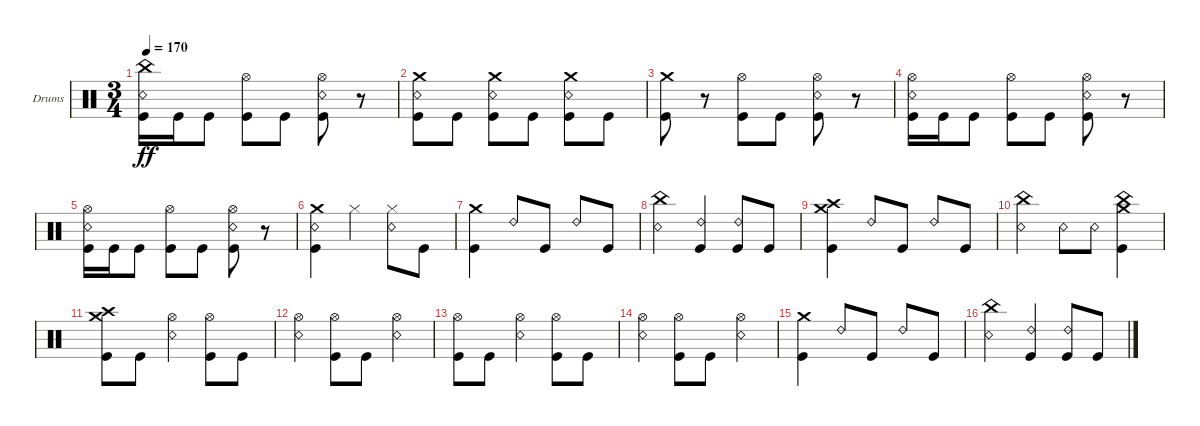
\bracketExtendMode groupsimilarinstruments
\firstSystemTrackNameOrientation horizontal
\otherSystemsTrackNameOrientation horizontal
\track ("Kaleb - Drums" "Drums") {instrument percussion}
\staff {score}
\articulation defaults
\ts (3 4)
\tempo 170
\clef neutral
\ks c
("Kick (hit)" "Snare (rim shot)" "China (hit)").16{dy ff} "Kick (hit)".16 "Kick (hit)".8 ("Kick (hit)" "Hi-Hat (open)").8 "Kick (hit)".8 ("Kick (hit)" "Hi-Hat (open)" "Snare (rim shot)").8 r.8 |
("Kick (hit)" "Crash medium (hit)" "Snare (rim shot)").8 "Kick (hit)".8 ("Kick (hit)" "Crash medium (hit)" "Snare (rim shot)").8 "Kick (hit)".8 ("Kick (hit)" "Crash medium (hit)" "Snare (rim shot)").8 "Kick (hit)".8 |
("Kick (hit)" "Crash medium (hit)").8 r.8 ("Kick (hit)" "Hi-Hat (open)").8 "Kick (hit)".8 ("Kick (hit)" "Hi-Hat (open)" "Snare (rim shot)").8 r.8 |
("Kick (hit)" "Hi-Hat (open)" "Snare (rim shot)").16 "Kick (hit)".16 "Kick (hit)".8 ("Kick (hit)" "Hi-Hat (open)").8 "Kick (hit)".8 ("Kick (hit)" "Hi-Hat (open)" "Snare (rim shot)").8 r.8 |
("Kick (hit)" "Hi-Hat (open)" "Snare (rim shot)").16 "Kick (hit)".16 "Kick (hit)".8 ("Kick (hit)" "Hi-Hat (open)").8 "Kick (hit)".8 ("Kick (hit)" "Hi-Hat (open)" "Snare (rim shot)").8 r.8 |
("Kick (hit)" "Crash medium (hit)" "Snare (rim shot)").4 "Hi-Hat (closed)".4 ("Hi-Hat (closed)" "Snare (rim shot)").8 "Kick (hit)".8 |
("Kick (hit)" "Crash medium (hit)").4 "Ride (bell) 2".8 "Kick (hit)".8 "Ride (bell) 2".8 "Kick (hit)".8 |
("Snare (rim shot)" "China (hit)").4 ("Ride (bell) 2" "Kick (hit)").4 ("Ride (bell) 2" "Kick (hit)").8 "Kick (hit)".8 |
("Kick (hit)" "Crash medium (hit)" "Crash high (hit)").4 "Ride (bell) 2".8 "Kick (hit)".8 "Ride (bell) 2".8 "Kick (hit)".8 |
("Snare (rim shot)" "China (hit)").4 "Snare (rim shot)".8 "Snare (rim shot)".8 ("Kick (hit)" "Crash medium (hit)" "China (hit)").4 |
("Kick (hit)" "Crash medium (hit)" "Crash high (hit)").8 "Kick (hit)".8 ("Hi-Hat (open)" "Snare (rim shot)").4 ("Kick (hit)" "Hi-Hat (open)").8 "Kick (hit)".8 |
("Hi-Hat (open)" "Snare (rim shot)").4 ("Kick (hit)" "Hi-Hat (open)").8 "Kick (hit)".8 ("Hi-Hat (open)" "Snare (rim shot)").4 |
("Kick (hit)" "Hi-Hat (open)").8 "Kick (hit)".8 ("Hi-Hat (open)" "Snare (rim shot)").4 ("Kick (hit)" "Hi-Hat (open)").8 "Kick (hit)".8 |
("Hi-Hat (open)" "Snare (rim shot)").4 ("Kick (hit)" "Hi-Hat (open)").8 "Kick (hit)".8 ("Hi-Hat (open)" "Snare (rim shot)").4 |
("Kick (hit)" "Crash medium (hit)").4 "Ride (bell) 2".8 "Kick (hit)".8 "Ride (bell) 2".8 "Kick (hit)".8 |
("Snare (rim shot)" "China (hit)").4 ("Ride (bell) 2" "Kick (hit)").4 ("Ride (bell) 2" "Kick (hit)").8 "Kick (hit)".8
